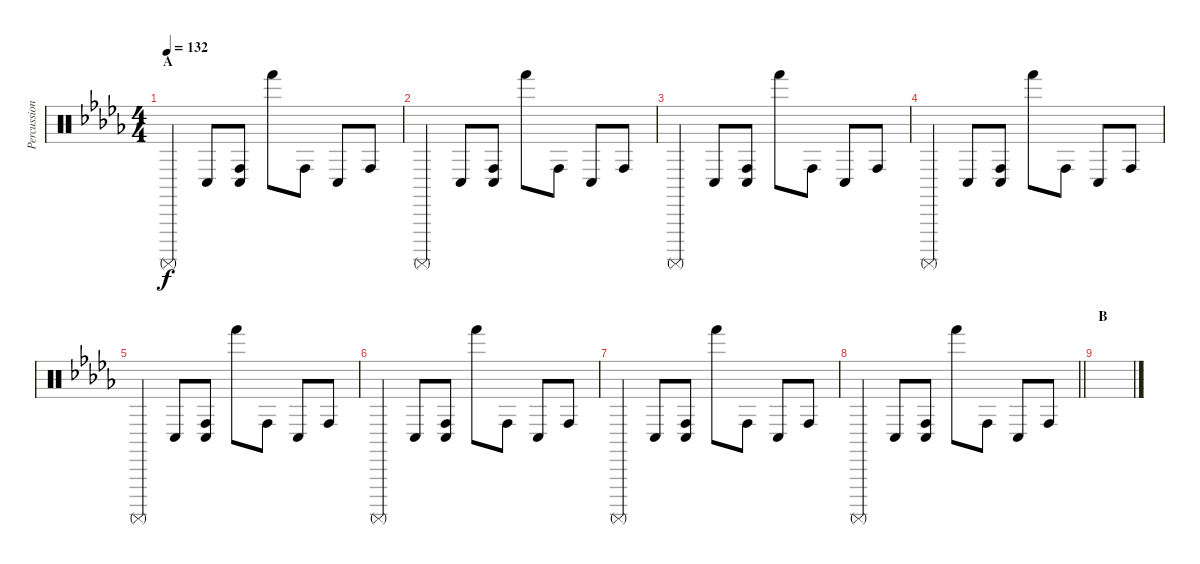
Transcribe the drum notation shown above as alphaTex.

\track ("Percussion" "Percussion") {instrument percussion}
\staff {score}
\articulation defaults
\ts (4 4)
\section ("" "A")
\tempo 132
\clef neutral
\ks db "Surdo (mute)".4{dy f} "Conga low (hit)".8
("Conga low (hit)" "Conga high (hit)").8 "Hand (hit)".8 "Conga high (hit)".8 "Conga low (hit)".8 "Conga high (hit)".8 |
"Surdo (mute)".4 "Conga low (hit)".8 ("Conga low (hit)" "Conga high (hit)").8 "Hand (hit)".8 "Conga high (hit)".8 "Conga low (hit)".8 "Conga high (hit)".8 |
"Surdo (mute)".4 "Conga low (hit)".8 ("Conga low (hit)" "Conga high (hit)").8 "Hand (hit)".8 "Conga high (hit)".8 "Conga low (hit)".8 "Conga high (hit)".8 |
"Surdo (mute)".4 "Conga low (hit)".8 ("Conga low (hit)" "Conga high (hit)").8 "Hand (hit)".8 "Conga high (hit)".8 "Conga low (hit)".8 "Conga high (hit)".8 |
"Surdo (mute)".4 "Conga low (hit)".8 ("Conga low (hit)" "Conga high (hit)").8 "Hand (hit)".8 "Conga high (hit)".8 "Conga low (hit)".8 "Conga high (hit)".8 |
"Surdo (mute)".4 "Conga low (hit)".8 ("Conga low (hit)" "Conga high (hit)").8 "Hand (hit)".8 "Conga high (hit)".8 "Conga low (hit)".8 "Conga high (hit)".8 |
"Surdo (mute)".4 "Conga low (hit)".8 ("Conga low (hit)" "Conga high (hit)").8 "Hand (hit)".8 "Conga high (hit)".8 "Conga low (hit)".8 "Conga high (hit)".8 |
\barLineRight lightlight "Surdo (mute)".4 "Conga low (hit)".8
("Conga low (hit)" "Conga high (hit)").8 "Hand (hit)".8 "Conga high (hit)".8 "Conga low (hit)".8 "Conga high (hit)".8 |
\section ("" "B")
